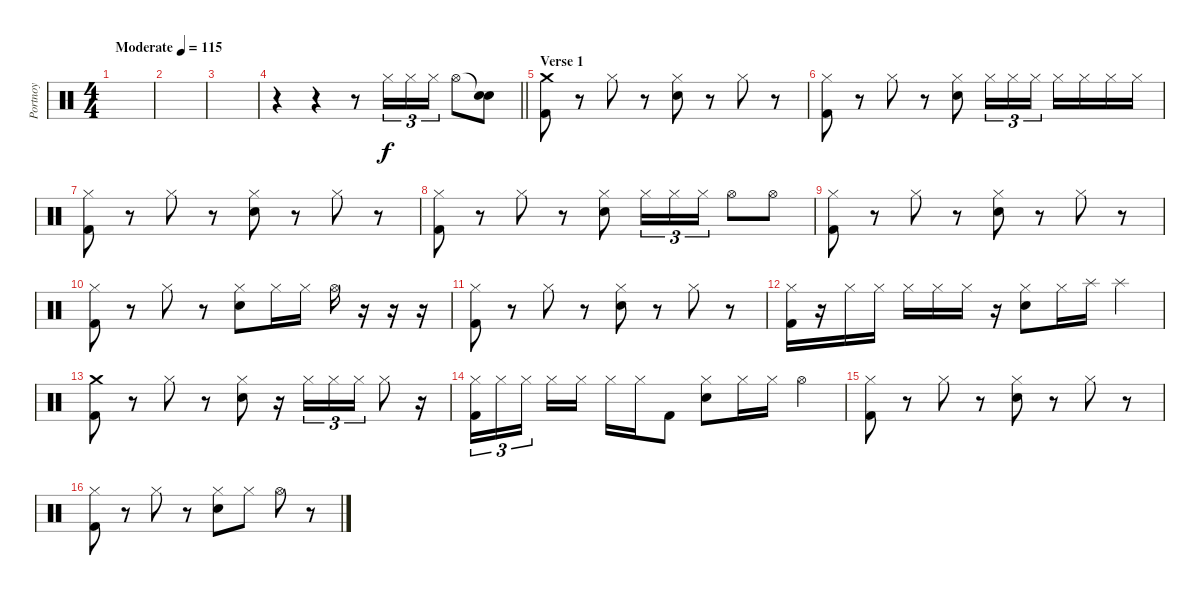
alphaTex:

\track ("Portnoy" "Portnoy") {instrument percussion}
\staff {score}
\articulation defaults
\ts (4 4)
\tempo (115 "Moderate")
\clef neutral
\ks c
|
|
|
\barLineRight lightlight
r.4 r.4 r.8 "Hi-Hat (closed)".16{tu (3 2)} "Hi-Hat (closed)".16{tu (3 2)} "Hi-Hat (closed)".16{tu (3 2)} "Hi-Hat (open)".8 ("Snare (hit)"{t} "Snare (hit)").8 |
\section ("" "Verse 1")
("Crash medium (hit)" "Kick (hit) 2").8 r.8 "Hi-Hat (closed)".8 r.8 ("Hi-Hat (closed)" "Snare (hit) 2").8 r.8 "Hi-Hat (closed)".8 r.8 |
("Hi-Hat (closed)" "Kick (hit) 2").8 r.8 "Hi-Hat (closed)".8 r.8 ("Hi-Hat (closed)" "Snare (hit) 2").8 "Hi-Hat (closed)".16{tu (3 2)} "Hi-Hat (closed)".16{tu (3 2)} "Hi-Hat (closed)".16{tu (3 2)} "Hi-Hat (closed)".16 "Hi-Hat (closed)".16 "Hi-Hat (closed)".16 "Hi-Hat (closed)".16 |
("Hi-Hat (closed)" "Kick (hit) 2").8 r.8 "Hi-Hat (closed)".8 r.8 ("Hi-Hat (closed)" "Snare (hit) 2").8 r.8 "Hi-Hat (closed)".8 r.8 |
("Hi-Hat (closed)" "Kick (hit) 2").8 r.8 "Hi-Hat (closed)".8 r.8 ("Hi-Hat (closed)" "Snare (hit) 2").8 "Hi-Hat (closed)".16{tu (3 2)} "Hi-Hat (closed)".16{tu (3 2)} "Hi-Hat (closed)".16{tu (3 2)} "Hi-Hat (open)".8 "Hi-Hat (open)".8 |
("Hi-Hat (closed)" "Kick (hit) 2").8 r.8 "Hi-Hat (closed)".8 r.8 ("Hi-Hat (closed)" "Snare (hit) 2").8 r.8 "Hi-Hat (closed)".8 r.8 |
("Hi-Hat (closed)" "Kick (hit) 2").8 r.8 "Hi-Hat (closed)".8 r.8 ("Hi-Hat (closed)" "Snare (hit) 2").8 "Hi-Hat (closed)".16 "Hi-Hat (closed)".16 "Hi-Hat (open)".16 r.16 r.16 r.16 |
("Hi-Hat (closed)" "Kick (hit) 2").8 r.8 "Hi-Hat (closed)".8 r.8 ("Hi-Hat (closed)" "Snare (hit) 2").8 r.8 "Hi-Hat (closed)".8 r.8 |
("Hi-Hat (closed)" "Kick (hit) 2").16 r.16 "Hi-Hat (closed)".16 "Hi-Hat (closed)".16 "Hi-Hat (closed)".16 "Hi-Hat (closed)".16 "Hi-Hat (closed)".16 r.16 ("Hi-Hat (closed)" "Snare (hit) 2").8 "Hi-Hat (closed)".16 "Splash (hit)".16 "Splash (hit)".4 |
("Crash medium (hit)" "Kick (hit) 2").8 r.8 "Hi-Hat (closed)".8 r.8 ("Hi-Hat (closed)" "Snare (hit) 2").8 r.16 "Hi-Hat (closed)".16{tu (3 2)} "Hi-Hat (closed)".16{tu (3 2)} "Hi-Hat (closed)".16{tu (3 2)} "Hi-Hat (closed)".8 r.16 |
("Hi-Hat (closed)" "Kick (hit) 2").16{tu (3 2)} "Hi-Hat (closed)".16{tu (3 2)} "Hi-Hat (closed)".16{tu (3 2) beam splitsecondary} "Hi-Hat (closed)".16 "Hi-Hat (closed)".16 "Hi-Hat (closed)".16 "Hi-Hat (closed)".16 "Kick (hit) 2".8 ("Hi-Hat (closed)" "Snare (hit) 2").8 "Hi-Hat (closed)".16 "Hi-Hat (closed)".16 "Hi-Hat (open)".4 |
("Hi-Hat (closed)" "Kick (hit) 2").8 r.8 "Hi-Hat (closed)".8 r.8 ("Hi-Hat (closed)" "Snare (hit) 2").8 r.8 "Hi-Hat (closed)".8 r.8 |
("Hi-Hat (closed)" "Kick (hit) 2").8 r.8 "Hi-Hat (closed)".8 r.8 ("Hi-Hat (closed)" "Snare (hit) 2").8 "Hi-Hat (closed)".8 "Hi-Hat (open)".8 r.8
